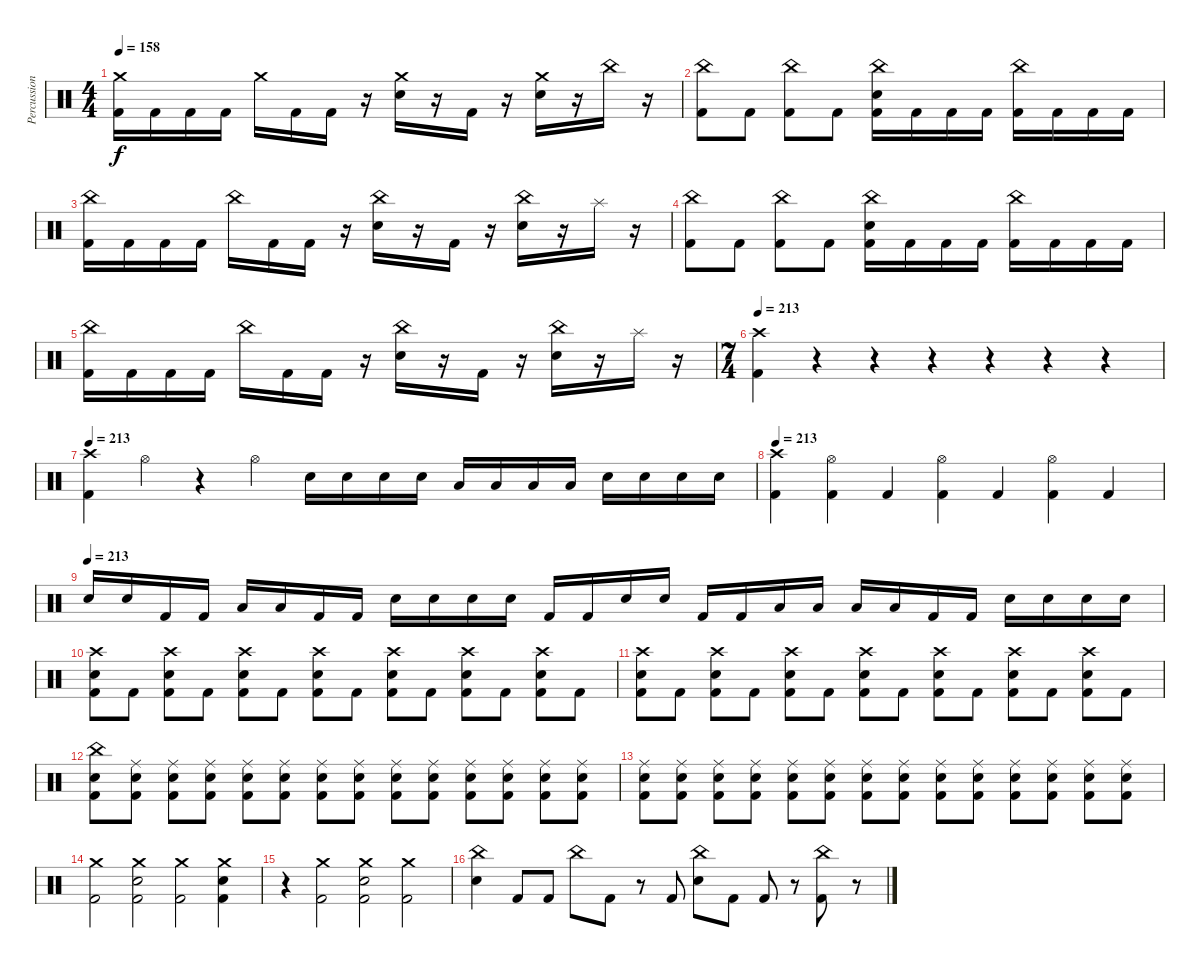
\track ("Percussion" "Percussion") {instrument percussion}
\staff {score}
\articulation defaults
\ts (4 4)
\tempo 158
\clef neutral
\ks c
("Crash medium (hit)" "Kick (hit) 2").16{dy f} "Kick (hit) 2".16 "Kick (hit) 2".16 "Kick (hit) 2".16 "Crash medium (hit)".16 "Kick (hit) 2".16 "Kick (hit) 2".16 r.16 ("Crash medium (hit)" "Snare (hit) 2").16 r.16 "Kick (hit) 2".16 r.16 ("Crash medium (hit)" "Snare (hit) 2").16 r.16 "China (hit)".16 r.16 |
("China (hit)" "Kick (hit) 2").8 "Kick (hit) 2".8 ("China (hit)" "Kick (hit) 2").8 "Kick (hit) 2".8 ("China (hit)" "Snare (hit) 2" "Kick (hit) 2").16 "Kick (hit) 2".16 "Kick (hit) 2".16 "Kick (hit) 2".16 ("China (hit)" "Kick (hit) 2").16 "Kick (hit) 2".16 "Kick (hit) 2".16 "Kick (hit) 2".16 |
("China (hit)" "Kick (hit) 2").16 "Kick (hit) 2".16 "Kick (hit) 2".16 "Kick (hit) 2".16 "China (hit)".16 "Kick (hit) 2".16 "Kick (hit) 2".16 r.16 ("China (hit)" "Snare (hit) 2").16 r.16 "Kick (hit) 2".16 r.16 ("China (hit)" "Snare (hit) 2").16 r.16 "Splash (hit)".16 r.16 |
("China (hit)" "Kick (hit) 2").8 "Kick (hit) 2".8 ("China (hit)" "Kick (hit) 2").8 "Kick (hit) 2".8 ("China (hit)" "Snare (hit) 2" "Kick (hit) 2").16 "Kick (hit) 2".16 "Kick (hit) 2".16 "Kick (hit) 2".16 ("China (hit)" "Kick (hit) 2").16 "Kick (hit) 2".16 "Kick (hit) 2".16 "Kick (hit) 2".16 |
("China (hit)" "Kick (hit) 2").16 "Kick (hit) 2".16 "Kick (hit) 2".16 "Kick (hit) 2".16 "China (hit)".16 "Kick (hit) 2".16 "Kick (hit) 2".16 r.16 ("China (hit)" "Snare (hit) 2").16 r.16 "Kick (hit) 2".16 r.16 ("China (hit)" "Snare (hit) 2").16 r.16 "Splash (hit)".16 r.16 |
\ts (7 4)
\tempo 213
("Crash high (hit)" "Kick (hit) 2").4 r.4 r.4 r.4 r.4 r.4 r.4 |
\tempo 213
("Crash high (hit)" "Kick (hit) 2").4 "Hi-Hat (open)".4 r.4 "Hi-Hat (open)".4 "Snare (hit) 2".16 "Snare (hit) 2".16 "Snare (hit) 2".16 "Snare (hit) 2".16 "Low Tom (hit)".16 "Low Tom (hit)".16 "Low Tom (hit)".16 "Low Tom (hit)".16 "Snare (hit) 2".16 "Snare (hit) 2".16 "Snare (hit) 2".16 "Snare (hit) 2".16 |
\tempo 213
("Crash high (hit)" "Kick (hit) 2").4 ("Hi-Hat (open)" "Kick (hit) 2").4 "Kick (hit) 2".4 ("Hi-Hat (open)" "Kick (hit) 2").4 "Kick (hit) 2".4 ("Hi-Hat (open)" "Kick (hit) 2").4 "Kick (hit) 2".4 |
\tempo (213)
"Snare (hit) 2".16 "Snare (hit) 2".16 "Kick (hit) 2".16 "Kick (hit) 2".16 "Low Tom (hit)".16 "Low Tom (hit)".16 "Kick (hit) 2".16 "Kick (hit) 2".16 "Snare (hit) 2".16 "Snare (hit) 2".16 "Snare (hit) 2".16 "Snare (hit) 2".16 "Kick (hit) 2".16 "Kick (hit) 2".16 "Snare (hit) 2".16 "Snare (hit) 2".16 "Kick (hit) 2".16 "Kick (hit) 2".16 "Low Tom (hit)".16 "Low Tom (hit)".16 "Low Tom (hit)".16 "Low Tom (hit)".16 "Kick (hit) 2".16 "Kick (hit) 2".16 "Snare (hit) 2".16 "Snare (hit) 2".16 "Snare (hit) 2".16 "Snare (hit) 2".16 |
("Crash high (hit)" "Snare (hit) 2" "Kick (hit) 2").8 "Kick (hit) 2".8 ("Crash high (hit)" "Snare (hit) 2" "Kick (hit) 2").8 "Kick (hit) 2".8 ("Crash high (hit)" "Snare (hit) 2" "Kick (hit) 2").8 "Kick (hit) 2".8 ("Crash high (hit)" "Snare (hit) 2" "Kick (hit) 2").8 "Kick (hit) 2".8 ("Crash high (hit)" "Snare (hit) 2" "Kick (hit) 2").8 "Kick (hit) 2".8 ("Crash high (hit)" "Snare (hit) 2" "Kick (hit) 2").8 "Kick (hit) 2".8 ("Crash high (hit)" "Snare (hit) 2" "Kick (hit) 2").8 "Kick (hit) 2".8 |
("Crash high (hit)" "Snare (hit) 2" "Kick (hit) 2").8 "Kick (hit) 2".8 ("Crash high (hit)" "Snare (hit) 2" "Kick (hit) 2").8 "Kick (hit) 2".8 ("Crash high (hit)" "Snare (hit) 2" "Kick (hit) 2").8 "Kick (hit) 2".8 ("Crash high (hit)" "Snare (hit) 2" "Kick (hit) 2").8 "Kick (hit) 2".8 ("Crash high (hit)" "Snare (hit) 2" "Kick (hit) 2").8 "Kick (hit) 2".8 ("Crash high (hit)" "Snare (hit) 2" "Kick (hit) 2").8 "Kick (hit) 2".8 ("Crash high (hit)" "Snare (hit) 2" "Kick (hit) 2").8 "Kick (hit) 2".8 |
("China (hit)" "Snare (hit) 2" "Kick (hit) 2").8 ("Ride (middle)" "Snare (hit) 2" "Kick (hit) 2").8 ("Ride (middle)" "Snare (hit) 2" "Kick (hit) 2").8 ("Ride (middle)" "Snare (hit) 2" "Kick (hit) 2").8 ("Ride (middle)" "Snare (hit) 2" "Kick (hit) 2").8 ("Ride (middle)" "Snare (hit) 2" "Kick (hit) 2").8 ("Ride (middle)" "Snare (hit) 2" "Kick (hit) 2").8 ("Ride (middle)" "Snare (hit) 2" "Kick (hit) 2").8 ("Ride (middle)" "Snare (hit) 2" "Kick (hit) 2").8 ("Ride (middle)" "Snare (hit) 2" "Kick (hit) 2").8 ("Ride (middle)" "Snare (hit) 2" "Kick (hit) 2").8 ("Ride (middle)" "Snare (hit) 2" "Kick (hit) 2").8 ("Ride (middle)" "Snare (hit) 2" "Kick (hit) 2").8 ("Ride (middle)" "Snare (hit) 2" "Kick (hit) 2").8 |
("Ride (middle)" "Snare (hit) 2" "Kick (hit) 2").8 ("Ride (middle)" "Snare (hit) 2" "Kick (hit) 2").8 ("Ride (middle)" "Snare (hit) 2" "Kick (hit) 2").8 ("Ride (middle)" "Snare (hit) 2" "Kick (hit) 2").8 ("Ride (middle)" "Snare (hit) 2" "Kick (hit) 2").8 ("Ride (middle)" "Snare (hit) 2" "Kick (hit) 2").8 ("Ride (middle)" "Snare (hit) 2" "Kick (hit) 2").8 ("Ride (middle)" "Snare (hit) 2" "Kick (hit) 2").8 ("Ride (middle)" "Snare (hit) 2" "Kick (hit) 2").8 ("Ride (middle)" "Snare (hit) 2" "Kick (hit) 2").8 ("Ride (middle)" "Snare (hit) 2" "Kick (hit) 2").8 ("Ride (middle)" "Snare (hit) 2" "Kick (hit) 2").8 ("Ride (middle)" "Snare (hit) 2" "Kick (hit) 2").8 ("Ride (middle)" "Snare (hit) 2" "Kick (hit) 2").8 |
("Crash medium (hit)" "Kick (hit) 2").2 ("Crash medium (hit)" "Snare (hit) 2" "Kick (hit) 2").2 ("Crash medium (hit)" "Kick (hit) 2").2 ("Crash medium (hit)" "Snare (hit) 2" "Kick (hit) 2").4 |
r.4 ("Crash medium (hit)" "Kick (hit) 2").2 ("Crash medium (hit)" "Snare (hit) 2" "Kick (hit) 2").2 ("Crash medium (hit)" "Kick (hit) 2").2 |
("China (hit)" "Snare (hit) 2").4 "Kick (hit) 2".8 "Kick (hit) 2".8 "China (hit)".8 "Kick (hit) 2".8 r.8 "Kick (hit) 2".8 ("China (hit)" "Snare (hit) 2").8 "Kick (hit) 2".8 "Kick (hit) 2".8 r.8 ("China (hit)" "Kick (hit) 2").8 r.8
